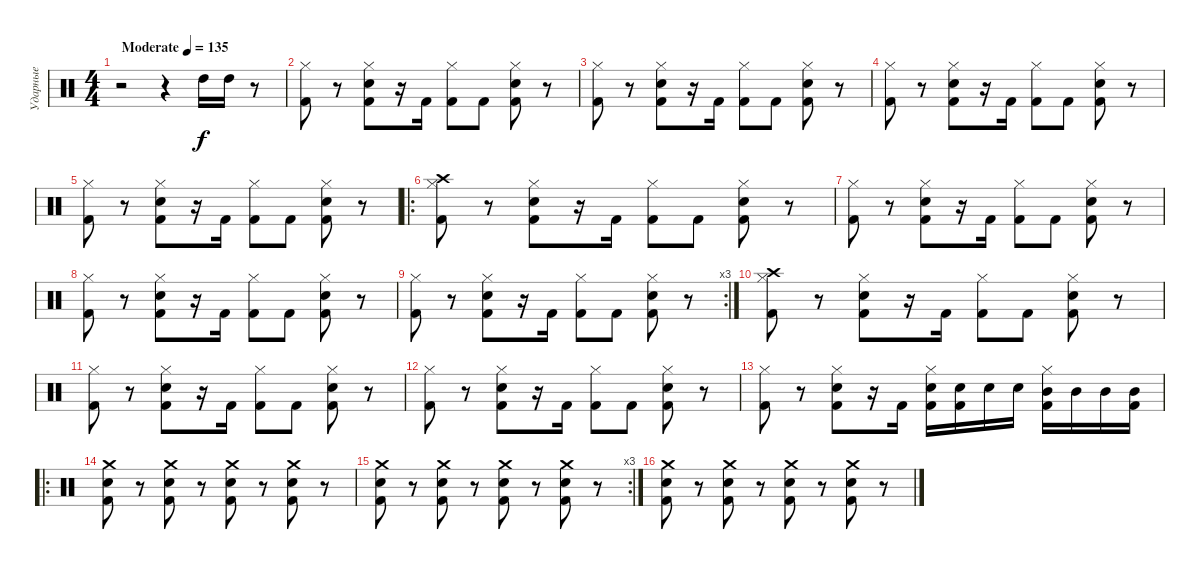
\track ("Ударные" "Ударные") {instrument percussion}
\staff {score}
\articulation defaults
\ts (4 4)
\tempo (135 "Moderate")
\clef neutral
\ks c
r.2{dy f} r.4 "High Tom (hit)".16 "High Tom (hit)".16 r.8 |
("Hi-Hat (closed)" "Kick (hit) 2").8 r.8 ("Hi-Hat (closed)" "Electric Snare (hit)" "Kick (hit) 2").8 r.16 "Kick (hit) 2".16 ("Hi-Hat (closed)" "Kick (hit) 2").8 "Kick (hit) 2".8 ("Hi-Hat (closed)" "Electric Snare (hit)" "Kick (hit) 2").8 r.8 |
("Hi-Hat (closed)" "Kick (hit) 2").8 r.8 ("Hi-Hat (closed)" "Electric Snare (hit)" "Kick (hit) 2").8 r.16 "Kick (hit) 2".16 ("Hi-Hat (closed)" "Kick (hit) 2").8 "Kick (hit) 2".8 ("Hi-Hat (closed)" "Electric Snare (hit)" "Kick (hit) 2").8 r.8 |
("Hi-Hat (closed)" "Kick (hit) 2").8 r.8 ("Hi-Hat (closed)" "Electric Snare (hit)" "Kick (hit) 2").8 r.16 "Kick (hit) 2".16 ("Hi-Hat (closed)" "Kick (hit) 2").8 "Kick (hit) 2".8 ("Hi-Hat (closed)" "Electric Snare (hit)" "Kick (hit) 2").8 r.8 |
("Hi-Hat (closed)" "Kick (hit) 2").8 r.8 ("Hi-Hat (closed)" "Electric Snare (hit)" "Kick (hit) 2").8 r.16 "Kick (hit) 2".16 ("Hi-Hat (closed)" "Kick (hit) 2").8 "Kick (hit) 2".8 ("Hi-Hat (closed)" "Electric Snare (hit)" "Kick (hit) 2").8 r.8 |
\ro
("Hi-Hat (closed)" "Crash high (hit)" "Kick (hit) 2").8 r.8 ("Hi-Hat (closed)" "Electric Snare (hit)" "Kick (hit) 2").8 r.16 "Kick (hit) 2".16 ("Hi-Hat (closed)" "Kick (hit) 2").8 "Kick (hit) 2".8 ("Hi-Hat (closed)" "Electric Snare (hit)" "Kick (hit) 2").8 r.8 |
("Hi-Hat (closed)" "Kick (hit) 2").8 r.8 ("Hi-Hat (closed)" "Electric Snare (hit)" "Kick (hit) 2").8 r.16 "Kick (hit) 2".16 ("Hi-Hat (closed)" "Kick (hit) 2").8 "Kick (hit) 2".8 ("Hi-Hat (closed)" "Electric Snare (hit)" "Kick (hit) 2").8 r.8 |
("Hi-Hat (closed)" "Kick (hit) 2").8 r.8 ("Hi-Hat (closed)" "Electric Snare (hit)" "Kick (hit) 2").8 r.16 "Kick (hit) 2".16 ("Hi-Hat (closed)" "Kick (hit) 2").8 "Kick (hit) 2".8 ("Hi-Hat (closed)" "Electric Snare (hit)" "Kick (hit) 2").8 r.8 |
\rc 3
("Hi-Hat (closed)" "Kick (hit) 2").8 r.8 ("Hi-Hat (closed)" "Electric Snare (hit)" "Kick (hit) 2").8 r.16 "Kick (hit) 2".16 ("Hi-Hat (closed)" "Kick (hit) 2").8 "Kick (hit) 2".8 ("Hi-Hat (closed)" "Electric Snare (hit)" "Kick (hit) 2").8 r.8 |
("Hi-Hat (closed)" "Crash high (hit)" "Kick (hit) 2").8 r.8 ("Hi-Hat (closed)" "Electric Snare (hit)" "Kick (hit) 2").8 r.16 "Kick (hit) 2".16 ("Hi-Hat (closed)" "Kick (hit) 2").8 "Kick (hit) 2".8 ("Hi-Hat (closed)" "Electric Snare (hit)" "Kick (hit) 2").8 r.8 |
("Hi-Hat (closed)" "Kick (hit) 2").8 r.8 ("Hi-Hat (closed)" "Electric Snare (hit)" "Kick (hit) 2").8 r.16 "Kick (hit) 2".16 ("Hi-Hat (closed)" "Kick (hit) 2").8 "Kick (hit) 2".8 ("Hi-Hat (closed)" "Electric Snare (hit)" "Kick (hit) 2").8 r.8 |
("Hi-Hat (closed)" "Kick (hit) 2").8 r.8 ("Hi-Hat (closed)" "Electric Snare (hit)" "Kick (hit) 2").8 r.16 "Kick (hit) 2".16 ("Hi-Hat (closed)" "Kick (hit) 2").8 "Kick (hit) 2".8 ("Hi-Hat (closed)" "Electric Snare (hit)" "Kick (hit) 2").8 r.8 |
("Hi-Hat (closed)" "Kick (hit) 2").8 r.8 ("Hi-Hat (closed)" "Electric Snare (hit)" "Kick (hit) 2").8 r.16 "Kick (hit) 2".16 ("Hi-Hat (closed)" "Electric Snare (hit)" "Kick (hit) 2").16 ("Electric Snare (hit)" "Kick (hit) 2").16 "Electric Snare (hit)".16 "Electric Snare (hit)".16 ("Hi-Hat (closed)" "Mid Tom (hit)" "Kick (hit) 2").16 "Mid Tom (hit)".16 "Mid Tom (hit)".16 ("Mid Tom (hit)" "Kick (hit) 2").16 |
\ro
("Crash medium (hit)" "Electric Snare (hit)" "Kick (hit) 2").8 r.8 ("Crash medium (hit)" "Electric Snare (hit)" "Kick (hit) 2").8 r.8 ("Crash medium (hit)" "Electric Snare (hit)" "Kick (hit) 2").8 r.8 ("Crash medium (hit)" "Electric Snare (hit)" "Kick (hit) 2").8 r.8 |
\rc 3
("Crash medium (hit)" "Electric Snare (hit)" "Kick (hit) 2").8 r.8 ("Crash medium (hit)" "Electric Snare (hit)" "Kick (hit) 2").8 r.8 ("Crash medium (hit)" "Electric Snare (hit)" "Kick (hit) 2").8 r.8 ("Crash medium (hit)" "Electric Snare (hit)" "Kick (hit) 2").8 r.8 |
("Crash medium (hit)" "Electric Snare (hit)" "Kick (hit) 2").8 r.8 ("Crash medium (hit)" "Electric Snare (hit)" "Kick (hit) 2").8 r.8 ("Crash medium (hit)" "Electric Snare (hit)" "Kick (hit) 2").8 r.8 ("Crash medium (hit)" "Electric Snare (hit)" "Kick (hit) 2").8 r.8
